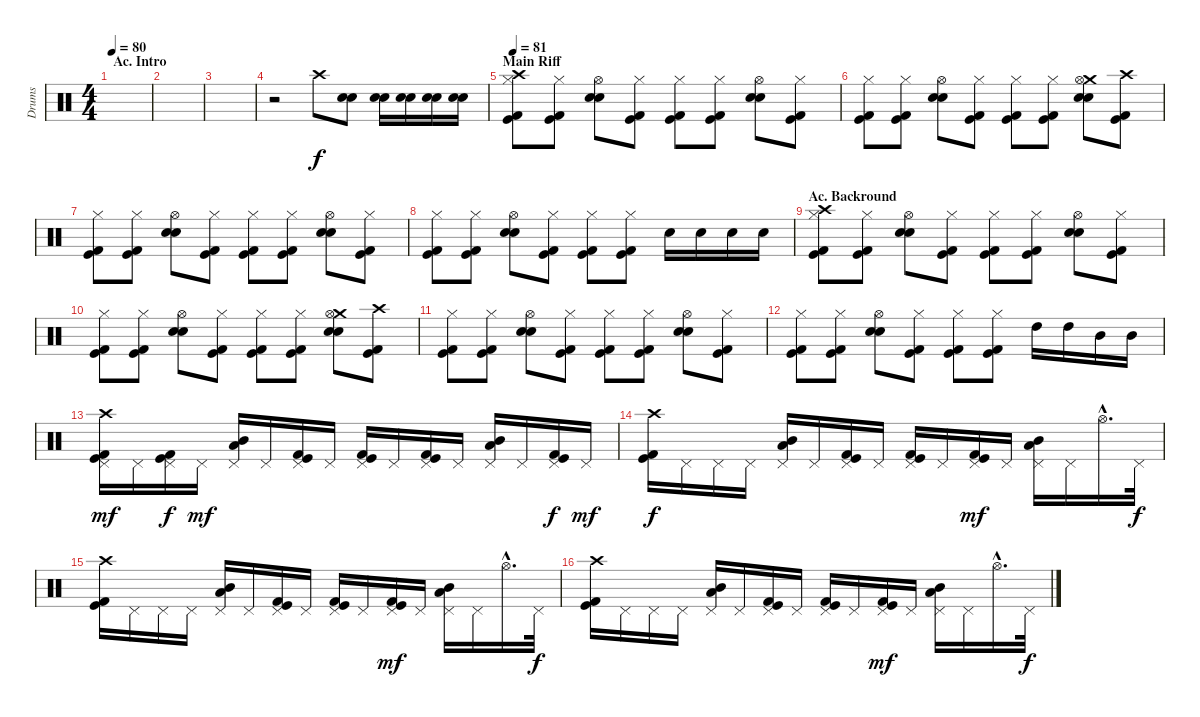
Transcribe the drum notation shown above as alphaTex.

\track ("Drums" "Drums") {instrument percussion}
\staff {score}
\articulation defaults
\ts (4 4)
\section ("" "Ac. Intro")
\tempo 80
\clef neutral
\ks c
|
|
|
r.2 "Crash high (hit)".8 ("Electric Snare (hit)" "Snare (hit) 2").8 ("Electric Snare (hit)" "Snare (hit) 2").16 ("Electric Snare (hit)" "Snare (hit) 2").16 ("Electric Snare (hit)" "Snare (hit) 2").16 ("Electric Snare (hit)" "Snare (hit) 2").16 |
\section ("" "Main Riff")
\tempo 81
("Hi-Hat (closed)" "Crash high (hit)" "Kick (hit) 2" "Kick (hit)").8 ("Hi-Hat (closed)" "Kick (hit) 2" "Kick (hit)").8 ("Hi-Hat (open)" "Snare (hit) 2" "Electric Snare (hit)").8 ("Hi-Hat (closed)" "Kick (hit) 2" "Kick (hit)").8 ("Hi-Hat (closed)" "Kick (hit) 2" "Kick (hit)").8 ("Hi-Hat (closed)" "Kick (hit) 2" "Kick (hit)").8 ("Hi-Hat (open)" "Snare (hit) 2" "Electric Snare (hit)").8 ("Hi-Hat (closed)" "Kick (hit) 2" "Kick (hit)").8 |
("Hi-Hat (closed)" "Kick (hit) 2" "Kick (hit)").8 ("Hi-Hat (closed)" "Kick (hit) 2" "Kick (hit)").8 ("Hi-Hat (open)" "Snare (hit) 2" "Electric Snare (hit)").8 ("Hi-Hat (closed)" "Kick (hit) 2" "Kick (hit)").8 ("Hi-Hat (closed)" "Kick (hit) 2" "Kick (hit)").8 ("Hi-Hat (closed)" "Kick (hit) 2" "Kick (hit)").8 ("Crash medium (hit)" "Hi-Hat (open)" "Snare (hit) 2" "Electric Snare (hit)").8 ("Crash high (hit)" "Kick (hit) 2" "Kick (hit)").8 |
("Hi-Hat (closed)" "Kick (hit) 2" "Kick (hit)").8 ("Hi-Hat (closed)" "Kick (hit) 2" "Kick (hit)").8 ("Hi-Hat (open)" "Snare (hit) 2" "Electric Snare (hit)").8 ("Hi-Hat (closed)" "Kick (hit) 2" "Kick (hit)").8 ("Hi-Hat (closed)" "Kick (hit) 2" "Kick (hit)").8 ("Hi-Hat (closed)" "Kick (hit) 2" "Kick (hit)").8 ("Hi-Hat (open)" "Snare (hit) 2" "Electric Snare (hit)").8 ("Hi-Hat (closed)" "Kick (hit) 2" "Kick (hit)").8 |
("Hi-Hat (closed)" "Kick (hit) 2" "Kick (hit)").8 ("Hi-Hat (closed)" "Kick (hit) 2" "Kick (hit)").8 ("Hi-Hat (open)" "Snare (hit) 2" "Electric Snare (hit)").8 ("Hi-Hat (closed)" "Kick (hit) 2" "Kick (hit)").8 ("Hi-Hat (closed)" "Kick (hit) 2" "Kick (hit)").8 ("Hi-Hat (closed)" "Kick (hit) 2" "Kick (hit)").8 "Snare (hit) 2".16 "Snare (hit) 2".16 "Snare (hit) 2".16 "Snare (hit) 2".16 |
\section ("" "Ac. Backround")
("Hi-Hat (closed)" "Crash high (hit)" "Kick (hit) 2" "Kick (hit)").8 ("Hi-Hat (closed)" "Kick (hit) 2" "Kick (hit)").8 ("Hi-Hat (open)" "Snare (hit) 2" "Electric Snare (hit)").8 ("Hi-Hat (closed)" "Kick (hit) 2" "Kick (hit)").8 ("Hi-Hat (closed)" "Kick (hit) 2" "Kick (hit)").8 ("Hi-Hat (closed)" "Kick (hit) 2" "Kick (hit)").8 ("Hi-Hat (open)" "Snare (hit) 2" "Electric Snare (hit)").8 ("Hi-Hat (closed)" "Kick (hit) 2" "Kick (hit)").8 |
("Hi-Hat (closed)" "Kick (hit) 2" "Kick (hit)").8 ("Hi-Hat (closed)" "Kick (hit) 2" "Kick (hit)").8 ("Hi-Hat (open)" "Snare (hit) 2" "Electric Snare (hit)").8 ("Hi-Hat (closed)" "Kick (hit) 2" "Kick (hit)").8 ("Hi-Hat (closed)" "Kick (hit) 2" "Kick (hit)").8 ("Hi-Hat (closed)" "Kick (hit) 2" "Kick (hit)").8 ("Crash medium (hit)" "Hi-Hat (open)" "Snare (hit) 2" "Electric Snare (hit)").8 ("Crash high (hit)" "Kick (hit) 2" "Kick (hit)").8 |
("Hi-Hat (closed)" "Kick (hit) 2" "Kick (hit)").8 ("Hi-Hat (closed)" "Kick (hit) 2" "Kick (hit)").8 ("Hi-Hat (open)" "Snare (hit) 2" "Electric Snare (hit)").8 ("Hi-Hat (closed)" "Kick (hit) 2" "Kick (hit)").8 ("Hi-Hat (closed)" "Kick (hit) 2" "Kick (hit)").8 ("Hi-Hat (closed)" "Kick (hit) 2" "Kick (hit)").8 ("Hi-Hat (open)" "Snare (hit) 2" "Electric Snare (hit)").8 ("Hi-Hat (closed)" "Kick (hit) 2" "Kick (hit)").8 |
("Hi-Hat (closed)" "Kick (hit) 2" "Kick (hit)").8 ("Hi-Hat (closed)" "Kick (hit) 2" "Kick (hit)").8 ("Hi-Hat (open)" "Snare (hit) 2" "Electric Snare (hit)").8 ("Hi-Hat (closed)" "Kick (hit) 2" "Kick (hit)").8 ("Hi-Hat (closed)" "Kick (hit) 2" "Kick (hit)").8 ("Hi-Hat (closed)" "Kick (hit) 2" "Kick (hit)").8 "High Tom (hit)".16 "High Tom (hit)".16 "Mid Tom (hit)".16 "Mid Tom (hit)".16 |
("Pedal Hi-Hat (hit)" "Crash high (hit)" "Kick (hit)" "Kick (hit) 2").16{dy mf} "Pedal Hi-Hat (hit)".16 ("Pedal Hi-Hat (hit)" "Kick (hit)" "Kick (hit) 2").16{dy f} "Pedal Hi-Hat (hit)".16{dy mf} ("Pedal Hi-Hat (hit)" "Mid Tom (hit)" "Low Tom (hit)").16 "Pedal Hi-Hat (hit)".16 ("Pedal Hi-Hat (hit)" "Kick (hit)" "Kick (hit) 2").16 "Pedal Hi-Hat (hit)".16 ("Pedal Hi-Hat (hit)" "Kick (hit)" "Kick (hit) 2").16 "Pedal Hi-Hat (hit)".16 ("Pedal Hi-Hat (hit)" "Kick (hit)" "Kick (hit) 2").16 "Pedal Hi-Hat (hit)".16 ("Pedal Hi-Hat (hit)" "Low Tom (hit)" "Mid Tom (hit)").16 "Pedal Hi-Hat (hit)".16 ("Pedal Hi-Hat (hit)" "Kick (hit)" "Kick (hit) 2").16{dy f} "Pedal Hi-Hat (hit)".16{dy mf} |
("Crash high (hit)" "Kick (hit)" "Kick (hit) 2").16{dy f} "Pedal Hi-Hat (hit)".16 "Pedal Hi-Hat (hit)".16 "Pedal Hi-Hat (hit)".16 ("Pedal Hi-Hat (hit)" "Mid Tom (hit)" "Low Tom (hit)").16 "Pedal Hi-Hat (hit)".16 ("Pedal Hi-Hat (hit)" "Kick (hit)" "Kick (hit) 2").16 "Pedal Hi-Hat (hit)".16 ("Pedal Hi-Hat (hit)" "Kick (hit)" "Kick (hit) 2").16 "Pedal Hi-Hat (hit)".16 ("Pedal Hi-Hat (hit)" "Kick (hit)" "Kick (hit) 2").16{dy mf} "Pedal Hi-Hat (hit)".16 ("Pedal Hi-Hat (hit)" "Mid Tom (hit)" "Low Tom (hit)").16 "Pedal Hi-Hat (hit)".16 "Hi-Hat (open)"{hac}.16{d} "Pedal Hi-Hat (hit)".32{dy f} |
("Crash high (hit)" "Kick (hit)" "Kick (hit) 2").16 "Pedal Hi-Hat (hit)".16 "Pedal Hi-Hat (hit)".16 "Pedal Hi-Hat (hit)".16 ("Pedal Hi-Hat (hit)" "Mid Tom (hit)" "Low Tom (hit)").16 "Pedal Hi-Hat (hit)".16 ("Pedal Hi-Hat (hit)" "Kick (hit)" "Kick (hit) 2").16 "Pedal Hi-Hat (hit)".16 ("Pedal Hi-Hat (hit)" "Kick (hit)" "Kick (hit) 2").16 "Pedal Hi-Hat (hit)".16 ("Pedal Hi-Hat (hit)" "Kick (hit)" "Kick (hit) 2").16{dy mf} "Pedal Hi-Hat (hit)".16 ("Pedal Hi-Hat (hit)" "Mid Tom (hit)" "Low Tom (hit)").16 "Pedal Hi-Hat (hit)".16 "Hi-Hat (open)"{hac}.16{d} "Pedal Hi-Hat (hit)".32{dy f} |
("Crash high (hit)" "Kick (hit)" "Kick (hit) 2").16 "Pedal Hi-Hat (hit)".16 "Pedal Hi-Hat (hit)".16 "Pedal Hi-Hat (hit)".16 ("Pedal Hi-Hat (hit)" "Mid Tom (hit)" "Low Tom (hit)").16 "Pedal Hi-Hat (hit)".16 ("Pedal Hi-Hat (hit)" "Kick (hit)" "Kick (hit) 2").16 "Pedal Hi-Hat (hit)".16 ("Pedal Hi-Hat (hit)" "Kick (hit)" "Kick (hit) 2").16 "Pedal Hi-Hat (hit)".16 ("Pedal Hi-Hat (hit)" "Kick (hit)" "Kick (hit) 2").16{dy mf} "Pedal Hi-Hat (hit)".16 ("Pedal Hi-Hat (hit)" "Mid Tom (hit)" "Low Tom (hit)").16 "Pedal Hi-Hat (hit)".16 "Hi-Hat (open)"{hac}.16{d} "Pedal Hi-Hat (hit)".32{dy f}
